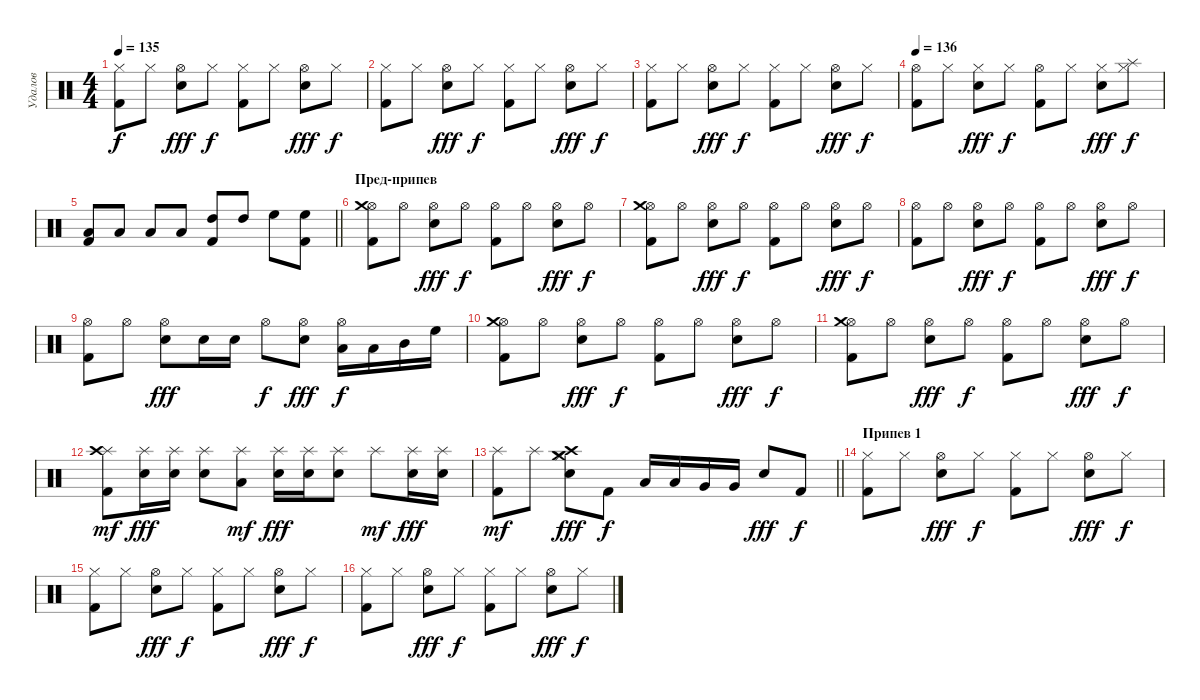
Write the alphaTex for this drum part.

\track ("Удалов" "Удалов") {instrument percussion}
\staff {score}
\articulation defaults
\ts (4 4)
\tempo 135
\clef neutral
\ks c
("Hi-Hat (closed)" "Kick (hit) 2").8{dy f} "Hi-Hat (closed)".8 ("Hi-Hat (open)" "Snare (hit) 2").8{dy fff} "Hi-Hat (closed)".8{dy f} ("Hi-Hat (closed)" "Kick (hit) 2").8 "Hi-Hat (closed)".8 ("Hi-Hat (open)" "Snare (hit) 2").8{dy fff} "Hi-Hat (closed)".8{dy f} |
("Hi-Hat (closed)" "Kick (hit) 2").8 "Hi-Hat (closed)".8 ("Hi-Hat (open)" "Snare (hit) 2").8{dy fff} "Hi-Hat (closed)".8{dy f} ("Hi-Hat (closed)" "Kick (hit) 2").8 "Hi-Hat (closed)".8 ("Hi-Hat (open)" "Snare (hit) 2").8{dy fff} "Hi-Hat (closed)".8{dy f} |
("Hi-Hat (closed)" "Kick (hit) 2").8 "Hi-Hat (closed)".8 ("Hi-Hat (open)" "Snare (hit) 2").8{dy fff} "Hi-Hat (closed)".8{dy f} ("Hi-Hat (closed)" "Kick (hit) 2").8 "Hi-Hat (closed)".8 ("Hi-Hat (open)" "Snare (hit) 2").8{dy fff} "Hi-Hat (closed)".8{dy f} |
\tempo 136
("Hi-Hat (open)" "Kick (hit) 2").8 "Hi-Hat (closed)".8 ("Hi-Hat (closed)" "Snare (hit) 2").8{dy fff} "Hi-Hat (closed)".8{dy f} ("Hi-Hat (open)" "Kick (hit) 2").8 "Hi-Hat (closed)".8 ("Hi-Hat (closed)" "Snare (hit) 2").8{dy fff} ("Hi-Hat (closed)" "Splash (hit)").8{dy f} |
\barLineRight lightlight
("Kick (hit) 2" "Low Floor Tom (hit)").8 "Low Floor Tom (hit)".8 "Low Tom (hit)".8 "Low Tom (hit)".8 ("High Tom (hit)" "Kick (hit) 2").8 "High Tom (hit)".8 "High Floor Tom (hit)".8 ("High Floor Tom (hit)" "Kick (hit) 2").8 |
\section ("" "Пред-припев")
("Hi-Hat (open)" "Kick (hit) 2" "Crash medium (hit)").8 "Hi-Hat (open)".8 ("Hi-Hat (open)" "Snare (hit) 2").8{dy fff} "Hi-Hat (open)".8{dy f} ("Hi-Hat (open)" "Kick (hit) 2").8 "Hi-Hat (open)".8 ("Hi-Hat (open)" "Snare (hit) 2").8{dy fff} "Hi-Hat (open)".8{dy f} |
("Hi-Hat (open)" "Kick (hit) 2" "Crash medium (hit)").8 "Hi-Hat (open)".8 ("Hi-Hat (open)" "Snare (hit) 2").8{dy fff} "Hi-Hat (open)".8{dy f} ("Hi-Hat (open)" "Kick (hit) 2").8 "Hi-Hat (open)".8 ("Hi-Hat (open)" "Snare (hit) 2").8{dy fff} "Hi-Hat (open)".8{dy f} |
("Hi-Hat (open)" "Kick (hit) 2").8 "Hi-Hat (open)".8 ("Hi-Hat (open)" "Snare (hit) 2").8{dy fff} "Hi-Hat (open)".8{dy f} ("Hi-Hat (open)" "Kick (hit) 2").8 "Hi-Hat (open)".8 ("Hi-Hat (open)" "Snare (hit) 2").8{dy fff} "Hi-Hat (open)".8{dy f} |
("Hi-Hat (open)" "Kick (hit) 2").8 "Hi-Hat (open)".8 ("Hi-Hat (open)" "Snare (hit) 2").8{dy fff} "Snare (hit) 2".16 "Snare (hit) 2".16 "Hi-Hat (open)".8{dy f} ("Hi-Hat (open)" "Snare (hit) 2").8{dy fff} ("Hi-Hat (open)" "Low Floor Tom (hit)").16{dy f} "Low Tom (hit)".16 "Mid Tom (hit)".16 "High Floor Tom (hit)".16 |
("Hi-Hat (open)" "Kick (hit) 2" "Crash medium (hit)").8 "Hi-Hat (open)".8 ("Hi-Hat (open)" "Snare (hit) 2").8{dy fff} "Hi-Hat (open)".8{dy f} ("Hi-Hat (open)" "Kick (hit) 2").8 "Hi-Hat (open)".8 ("Hi-Hat (open)" "Snare (hit) 2").8{dy fff} "Hi-Hat (open)".8{dy f} |
("Hi-Hat (open)" "Kick (hit) 2" "Crash medium (hit)").8 "Hi-Hat (open)".8 ("Hi-Hat (open)" "Snare (hit) 2").8{dy fff} "Hi-Hat (open)".8{dy f} ("Hi-Hat (open)" "Kick (hit) 2").8 "Hi-Hat (open)".8 ("Hi-Hat (open)" "Snare (hit) 2").8{dy fff} "Hi-Hat (open)".8{dy f} |
("Splash (hit)" "Crash high (hit)" "Kick (hit) 2").8{dy mf} ("Splash (hit)" "Snare (hit) 2").16{dy fff} ("Splash (hit)" "Snare (hit) 2").16 ("Splash (hit)" "Snare (hit) 2").8 ("Splash (hit)" "Low Floor Tom (hit)").8{dy mf} ("Splash (hit)" "Snare (hit) 2").16{dy fff} ("Splash (hit)" "Snare (hit) 2").16 ("Splash (hit)" "Snare (hit) 2").8 "Splash (hit)".8{dy mf} ("Splash (hit)" "Snare (hit) 2").16{dy fff} ("Splash (hit)" "Snare (hit) 2").16 |
\barLineRight lightlight
("Splash (hit)" "Kick (hit) 2").8{dy mf} "Splash (hit)".8 ("Hi-Hat (closed)" "Snare (hit) 2" "Crash high (hit)" "Crash medium (hit)").8{dy fff} "Kick (hit) 2".8{dy f} "Low Floor Tom (hit)".16 "Low Floor Tom (hit)".16 "Very Low Tom (hit)".16 "Very Low Tom (hit)".16 "Snare (hit) 2".8{dy fff} "Kick (hit) 2".8{dy f} |
\section ("" "Припев 1")
("Hi-Hat (closed)" "Kick (hit) 2").8 "Hi-Hat (closed)".8 ("Hi-Hat (open)" "Snare (hit) 2").8{dy fff} "Hi-Hat (closed)".8{dy f} ("Hi-Hat (closed)" "Kick (hit) 2").8 "Hi-Hat (closed)".8 ("Hi-Hat (open)" "Snare (hit) 2").8{dy fff} "Hi-Hat (closed)".8{dy f} |
("Hi-Hat (closed)" "Kick (hit) 2").8 "Hi-Hat (closed)".8 ("Hi-Hat (open)" "Snare (hit) 2").8{dy fff} "Hi-Hat (closed)".8{dy f} ("Hi-Hat (closed)" "Kick (hit) 2").8 "Hi-Hat (closed)".8 ("Hi-Hat (open)" "Snare (hit) 2").8{dy fff} "Hi-Hat (closed)".8{dy f} |
("Hi-Hat (closed)" "Kick (hit) 2").8 "Hi-Hat (closed)".8 ("Hi-Hat (open)" "Snare (hit) 2").8{dy fff} "Hi-Hat (closed)".8{dy f} ("Hi-Hat (closed)" "Kick (hit) 2").8 "Hi-Hat (closed)".8 ("Hi-Hat (open)" "Snare (hit) 2").8{dy fff} "Hi-Hat (closed)".8{dy f}
